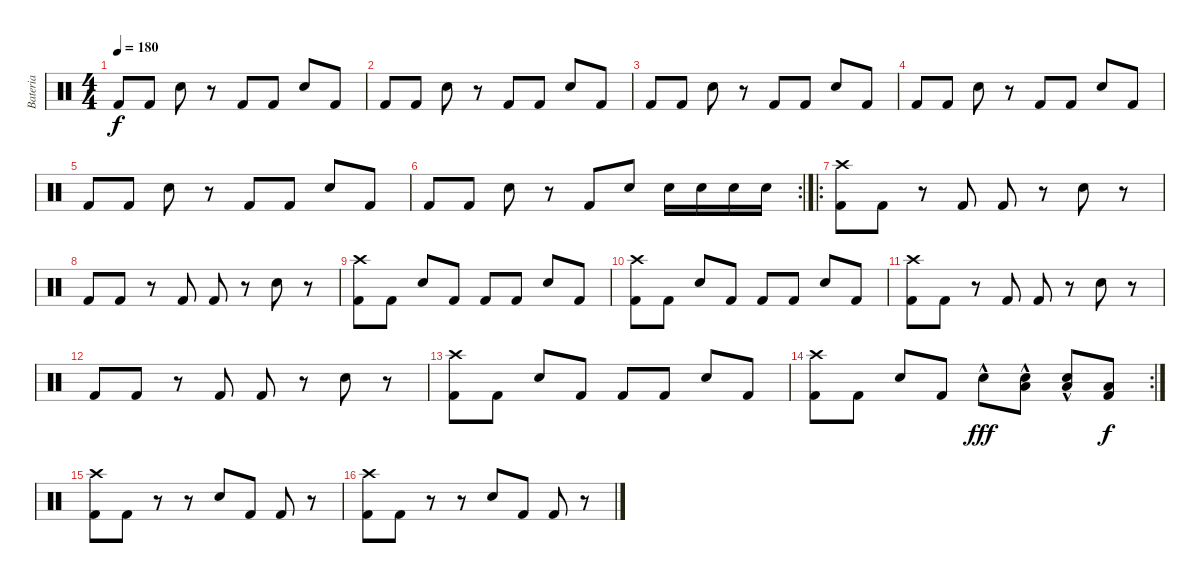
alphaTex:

\track ("Bateria" "Bateria") {instrument percussion}
\staff {score}
\articulation defaults
\ts (4 4)
\tempo 180
\clef neutral
\ks c "Kick (hit) 2".8{dy f} "Kick (hit) 2".8 "Electric Snare (hit)".8
r.8 "Kick (hit) 2".8 "Kick (hit) 2".8 "Electric Snare (hit)".8 "Kick (hit) 2".8 |
"Kick (hit) 2".8 "Kick (hit) 2".8 "Electric Snare (hit)".8 r.8 "Kick (hit) 2".8 "Kick (hit) 2".8 "Electric Snare (hit)".8 "Kick (hit) 2".8 |
"Kick (hit) 2".8 "Kick (hit) 2".8 "Electric Snare (hit)".8 r.8 "Kick (hit) 2".8 "Kick (hit) 2".8 "Electric Snare (hit)".8 "Kick (hit) 2".8 |
"Kick (hit) 2".8 "Kick (hit) 2".8 "Electric Snare (hit)".8 r.8 "Kick (hit) 2".8 "Kick (hit) 2".8 "Electric Snare (hit)".8 "Kick (hit) 2".8 |
"Kick (hit) 2".8 "Kick (hit) 2".8 "Electric Snare (hit)".8 r.8 "Kick (hit) 2".8 "Kick (hit) 2".8 "Electric Snare (hit)".8 "Kick (hit) 2".8 |
\rc 2 "Kick (hit) 2".8 "Kick (hit) 2".8 "Electric Snare (hit)".8
r.8 "Kick (hit) 2".8 "Electric Snare (hit)".8 "Electric Snare (hit)".16 "Electric Snare (hit)".16 "Electric Snare (hit)".16 "Electric Snare (hit)".16 |
\ro
("Kick (hit) 2" "Crash high (hit)").8 "Kick (hit) 2".8 r.8 "Kick (hit) 2".8 "Kick (hit) 2".8 r.8 "Electric Snare (hit)".8 r.8 |
"Kick (hit) 2".8 "Kick (hit) 2".8 r.8 "Kick (hit) 2".8 "Kick (hit) 2".8 r.8 "Electric Snare (hit)".8 r.8 |
("Kick (hit) 2" "Crash high (hit)").8 "Kick (hit) 2".8 "Electric Snare (hit)".8 "Kick (hit) 2".8 "Kick (hit) 2".8 "Kick (hit) 2".8 "Electric Snare (hit)".8 "Kick (hit) 2".8 |
("Kick (hit) 2" "Crash high (hit)").8 "Kick (hit) 2".8 "Electric Snare (hit)".8 "Kick (hit) 2".8 "Kick (hit) 2".8 "Kick (hit) 2".8 "Electric Snare (hit)".8 "Kick (hit) 2".8 |
("Kick (hit) 2" "Crash high (hit)").8 "Kick (hit) 2".8 r.8 "Kick (hit) 2".8 "Kick (hit) 2".8 r.8 "Electric Snare (hit)".8 r.8 |
"Kick (hit) 2".8 "Kick (hit) 2".8 r.8 "Kick (hit) 2".8 "Kick (hit) 2".8 r.8 "Electric Snare (hit)".8 r.8 |
("Kick (hit) 2" "Crash high (hit)").8 "Kick (hit) 2".8 "Electric Snare (hit)".8 "Kick (hit) 2".8 "Kick (hit) 2".8 "Kick (hit) 2".8 "Electric Snare (hit)".8 "Kick (hit) 2".8 |
\rc 2
("Kick (hit) 2" "Crash high (hit)").8 "Kick (hit) 2".8 "Electric Snare (hit)".8 "Kick (hit) 2".8 "Snare (hit) 2"{hac}.8{dy fff} ("Snare (hit) 2" "Low Tom (hit)"{hac}).8 ("Snare (hit) 2" "Low Tom (hit)"{hac}).8 ("Kick (hit) 2" "Low Tom (hit)").8{dy f} |
("Kick (hit) 2" "Crash high (hit)").8 "Kick (hit) 2".8 r.8 r.8 "Electric Snare (hit)".8 "Kick (hit) 2".8 "Kick (hit) 2".8 r.8 |
("Kick (hit) 2" "Crash high (hit)").8 "Kick (hit) 2".8 r.8 r.8 "Electric Snare (hit)".8 "Kick (hit) 2".8 "Kick (hit) 2".8 r.8
